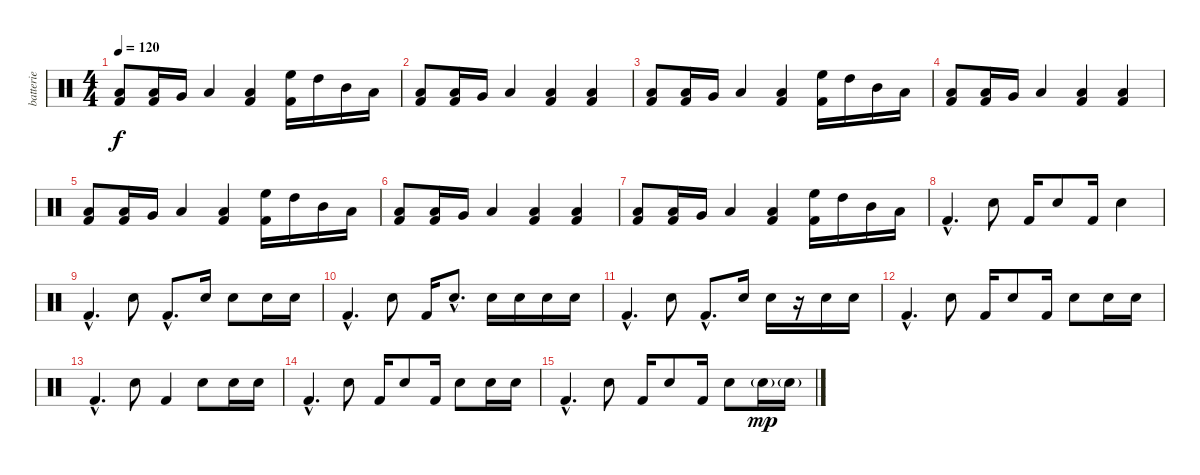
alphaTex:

\track ("batterie" "batterie") {instrument percussion}
\staff {score}
\articulation defaults
\ts (4 4)
\tempo 120
\clef neutral
\ks c
("Low Floor Tom (hit)" "Kick (hit) 2").8{dy f} ("Low Floor Tom (hit)" "Kick (hit) 2").16 "Very Low Tom (hit)".16 "Low Floor Tom (hit)".4 ("Low Floor Tom (hit)" "Kick (hit) 2").4 ("High Floor Tom (hit)" "Kick (hit) 2").16 "High Tom (hit)".16 "Mid Tom (hit)".16 "Low Tom (hit)".16 |
("Low Floor Tom (hit)" "Kick (hit) 2").8 ("Low Floor Tom (hit)" "Kick (hit) 2").16 "Very Low Tom (hit)".16 "Low Floor Tom (hit)".4 ("Low Floor Tom (hit)" "Kick (hit) 2").4 ("Low Floor Tom (hit)" "Kick (hit) 2").4 |
("Low Floor Tom (hit)" "Kick (hit) 2").8 ("Low Floor Tom (hit)" "Kick (hit) 2").16 "Very Low Tom (hit)".16 "Low Floor Tom (hit)".4 ("Low Floor Tom (hit)" "Kick (hit) 2").4 ("High Floor Tom (hit)" "Kick (hit) 2").16 "High Tom (hit)".16 "Mid Tom (hit)".16 "Low Tom (hit)".16 |
("Low Floor Tom (hit)" "Kick (hit) 2").8 ("Low Floor Tom (hit)" "Kick (hit) 2").16 "Very Low Tom (hit)".16 "Low Floor Tom (hit)".4 ("Low Floor Tom (hit)" "Kick (hit) 2").4 ("Low Floor Tom (hit)" "Kick (hit) 2").4 |
("Low Floor Tom (hit)" "Kick (hit) 2").8 ("Low Floor Tom (hit)" "Kick (hit) 2").16 "Very Low Tom (hit)".16 "Low Floor Tom (hit)".4 ("Low Floor Tom (hit)" "Kick (hit) 2").4 ("High Floor Tom (hit)" "Kick (hit) 2").16 "High Tom (hit)".16 "Mid Tom (hit)".16 "Low Tom (hit)".16 |
("Low Floor Tom (hit)" "Kick (hit) 2").8 ("Low Floor Tom (hit)" "Kick (hit) 2").16 "Very Low Tom (hit)".16 "Low Floor Tom (hit)".4 ("Low Floor Tom (hit)" "Kick (hit) 2").4 ("Low Floor Tom (hit)" "Kick (hit) 2").4 |
("Low Floor Tom (hit)" "Kick (hit) 2").8 ("Low Floor Tom (hit)" "Kick (hit) 2").16 "Very Low Tom (hit)".16 "Low Floor Tom (hit)".4 ("Low Floor Tom (hit)" "Kick (hit) 2").4 ("High Floor Tom (hit)" "Kick (hit) 2").16 "High Tom (hit)".16 "Mid Tom (hit)".16 "Low Tom (hit)".16 |
"Kick (hit) 2"{hac}.4{d} "Electric Snare (hit)".8 "Kick (hit) 2".16 "Electric Snare (hit)".8 "Kick (hit) 2".16 "Electric Snare (hit)".4 |
"Kick (hit) 2"{hac}.4{d} "Electric Snare (hit)".8 "Kick (hit) 2"{hac}.8{d} "Electric Snare (hit)".16 "Electric Snare (hit)".8 "Electric Snare (hit)".16 "Electric Snare (hit)".16 |
"Kick (hit) 2"{hac}.4{d} "Electric Snare (hit)".8 "Kick (hit) 2".16 "Electric Snare (hit)"{hac}.8{d} "Electric Snare (hit)".16 "Electric Snare (hit)".16 "Electric Snare (hit)".16 "Electric Snare (hit)".16 |
"Kick (hit) 2"{hac}.4{d} "Electric Snare (hit)".8 "Kick (hit) 2"{hac}.8{d} "Electric Snare (hit)".16 "Electric Snare (hit)".16 r.16 "Electric Snare (hit)".16 "Electric Snare (hit)".16 |
"Kick (hit) 2"{hac}.4{d} "Electric Snare (hit)".8 "Kick (hit) 2".16 "Electric Snare (hit)".8 "Kick (hit) 2".16 "Electric Snare (hit)".8 "Electric Snare (hit)".16 "Electric Snare (hit)".16 |
"Kick (hit) 2"{hac}.4{d} "Electric Snare (hit)".8 "Kick (hit) 2".4 "Electric Snare (hit)".8 "Electric Snare (hit)".16 "Electric Snare (hit)".16 |
"Kick (hit) 2"{hac}.4{d} "Electric Snare (hit)".8 "Kick (hit) 2".16 "Electric Snare (hit)".8 "Kick (hit) 2".16 "Electric Snare (hit)".8 "Electric Snare (hit)".16 "Electric Snare (hit)".16 |
"Kick (hit) 2"{hac}.4{d} "Electric Snare (hit)".8 "Kick (hit) 2".16 "Electric Snare (hit)".8 "Kick (hit) 2".16 "Electric Snare (hit)".8 "Electric Snare (hit)"{g}.16{dy mp} "Electric Snare (hit)"{g}.16
